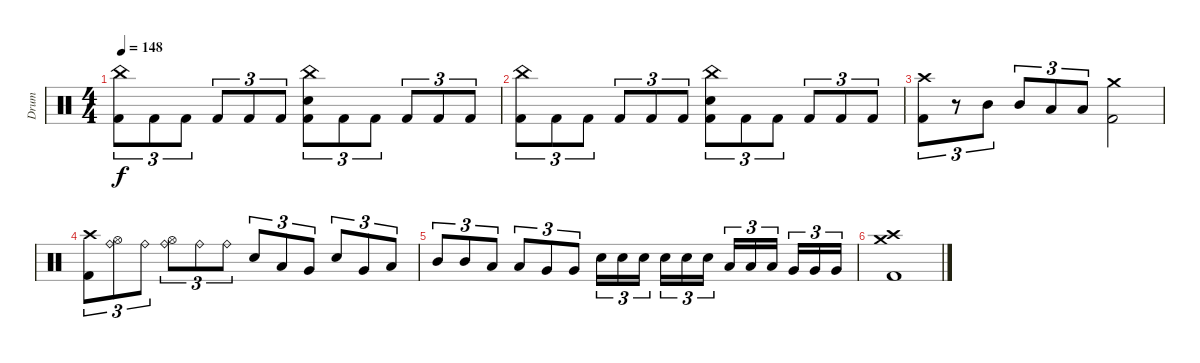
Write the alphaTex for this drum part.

\track ("Drum" "Drum") {instrument percussion}
\staff {score}
\articulation defaults
\ts (4 4)
\tempo 148
\clef neutral
\ks c
("China (hit)" "Kick (hit) 2").8{tu (3 2) dy f} "Kick (hit) 2".8{tu (3 2)} "Kick (hit) 2".8{tu (3 2)} "Kick (hit) 2".8{tu (3 2)} "Kick (hit) 2".8{tu (3 2)} "Kick (hit) 2".8{tu (3 2)} ("China (hit)" "Electric Snare (hit)" "Kick (hit) 2").8{tu (3 2)} "Kick (hit) 2".8{tu (3 2)} "Kick (hit) 2".8{tu (3 2)} "Kick (hit) 2".8{tu (3 2)} "Kick (hit) 2".8{tu (3 2)} "Kick (hit) 2".8{tu (3 2)} |
("China (hit)" "Kick (hit) 2").8{tu (3 2)} "Kick (hit) 2".8{tu (3 2)} "Kick (hit) 2".8{tu (3 2)} "Kick (hit) 2".8{tu (3 2)} "Kick (hit) 2".8{tu (3 2)} "Kick (hit) 2".8{tu (3 2)} ("China (hit)" "Electric Snare (hit)" "Kick (hit) 2").8{tu (3 2)} "Kick (hit) 2".8{tu (3 2)} "Kick (hit) 2".8{tu (3 2)} "Kick (hit) 2".8{tu (3 2)} "Kick (hit) 2".8{tu (3 2)} "Kick (hit) 2".8{tu (3 2)} |
("Crash high (hit)" "Kick (hit) 2").8{tu (3 2)} r.8{tu (3 2)} "Mid Tom (hit)".8{tu (3 2)} "Mid Tom (hit)".8{tu (3 2)} "Low Tom (hit)".8{tu (3 2)} "Low Tom (hit)".8{tu (3 2)} ("Crash medium (hit)" "Kick (hit) 2").2 |
("Crash high (hit)" "Kick (hit) 2").8{tu (3 2)} ("Ride (bell)" "Hi-Hat (open)").8{tu (3 2)} "Ride (bell)".8{tu (3 2)} ("Ride (bell)" "Hi-Hat (open)").8{tu (3 2)} "Ride (bell)".8{tu (3 2)} "Ride (bell)".8{tu (3 2)} "Electric Snare (hit)".8{tu (3 2)} "Low Tom (hit)".8{tu (3 2)} "Very Low Tom (hit)".8{tu (3 2)} "Electric Snare (hit)".8{tu (3 2)} "Very Low Tom (hit)".8{tu (3 2)} "Low Floor Tom (hit)".8{tu (3 2)} |
"Mid Tom (hit)".8{tu (3 2)} "Mid Tom (hit)".8{tu (3 2)} "Low Tom (hit)".8{tu (3 2)} "Low Tom (hit)".8{tu (3 2)} "Very Low Tom (hit)".8{tu (3 2)} "Very Low Tom (hit)".8{tu (3 2)} "Electric Snare (hit)".16{tu (3 2)} "Electric Snare (hit)".16{tu (3 2)} "Electric Snare (hit)".16{tu (3 2) beam splitsecondary} "Electric Snare (hit)".16{tu (3 2)} "Electric Snare (hit)".16{tu (3 2)} "Electric Snare (hit)".16{tu (3 2)} "Low Tom (hit)".16{tu (3 2)} "Low Tom (hit)".16{tu (3 2)} "Low Tom (hit)".16{tu (3 2) beam splitsecondary} "Very Low Tom (hit)".16{tu (3 2)} "Very Low Tom (hit)".16{tu (3 2)} "Very Low Tom (hit)".16{tu (3 2)} |
("Crash high (hit)" "Crash medium (hit)" "Kick (hit) 2").1
